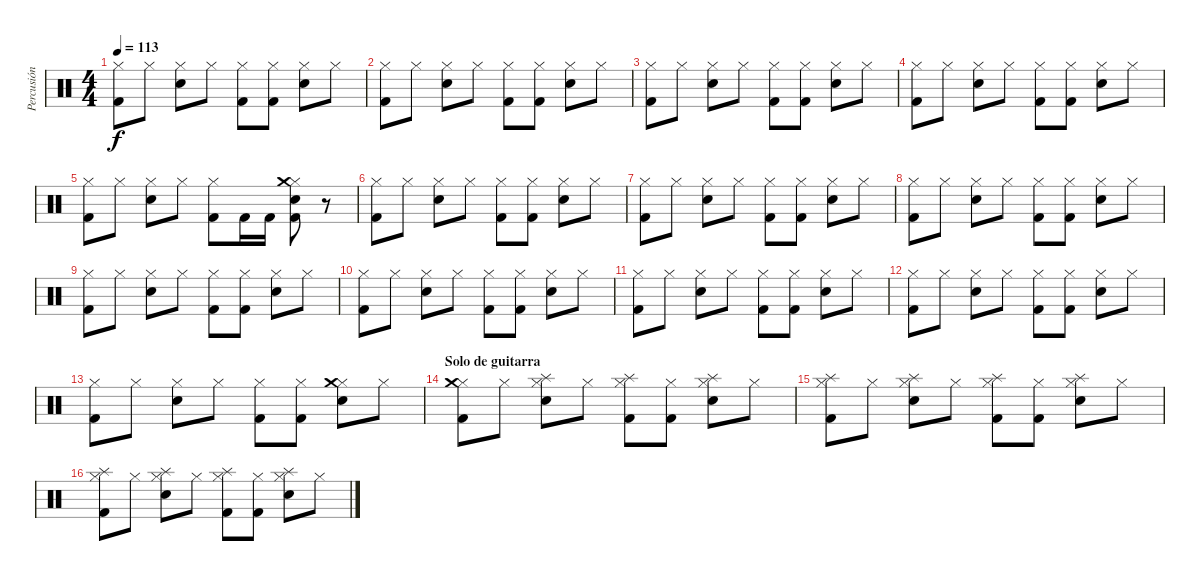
\track ("Percusión" "Percusión") {instrument percussion}
\staff {score}
\articulation defaults
\ts (4 4)
\tempo 113
\clef neutral
\ks c
("Kick (hit) 2" "Hi-Hat (closed)").8{dy f} "Hi-Hat (closed)".8 ("Electric Snare (hit)" "Hi-Hat (closed)").8 "Hi-Hat (closed)".8 ("Kick (hit) 2" "Hi-Hat (closed)").8 ("Kick (hit) 2" "Hi-Hat (closed)").8 ("Electric Snare (hit)" "Hi-Hat (closed)").8 "Hi-Hat (closed)".8 |
("Kick (hit) 2" "Hi-Hat (closed)").8 "Hi-Hat (closed)".8 ("Electric Snare (hit)" "Hi-Hat (closed)").8 "Hi-Hat (closed)".8 ("Kick (hit) 2" "Hi-Hat (closed)").8 ("Kick (hit) 2" "Hi-Hat (closed)").8 ("Electric Snare (hit)" "Hi-Hat (closed)").8 "Hi-Hat (closed)".8 |
("Kick (hit) 2" "Hi-Hat (closed)").8 "Hi-Hat (closed)".8 ("Electric Snare (hit)" "Hi-Hat (closed)").8 "Hi-Hat (closed)".8 ("Kick (hit) 2" "Hi-Hat (closed)").8 ("Kick (hit) 2" "Hi-Hat (closed)").8 ("Electric Snare (hit)" "Hi-Hat (closed)").8 "Hi-Hat (closed)".8 |
("Kick (hit) 2" "Hi-Hat (closed)").8 "Hi-Hat (closed)".8 ("Electric Snare (hit)" "Hi-Hat (closed)").8 "Hi-Hat (closed)".8 ("Kick (hit) 2" "Hi-Hat (closed)").8 ("Kick (hit) 2" "Hi-Hat (closed)").8 ("Electric Snare (hit)" "Hi-Hat (closed)").8 "Hi-Hat (closed)".8 |
("Kick (hit) 2" "Hi-Hat (closed)").8 "Hi-Hat (closed)".8 ("Electric Snare (hit)" "Hi-Hat (closed)").8 "Hi-Hat (closed)".8 ("Kick (hit) 2" "Hi-Hat (closed)").8 "Kick (hit) 2".16 "Kick (hit) 2".16 ("Kick (hit) 2" "Hi-Hat (closed)" "Crash medium (hit)" "Electric Snare (hit)").8 r.8 |
("Kick (hit) 2" "Hi-Hat (closed)").8 "Hi-Hat (closed)".8 ("Electric Snare (hit)" "Hi-Hat (closed)").8 "Hi-Hat (closed)".8 ("Kick (hit) 2" "Hi-Hat (closed)").8 ("Kick (hit) 2" "Hi-Hat (closed)").8 ("Electric Snare (hit)" "Hi-Hat (closed)").8 "Hi-Hat (closed)".8 |
("Kick (hit) 2" "Hi-Hat (closed)").8 "Hi-Hat (closed)".8 ("Electric Snare (hit)" "Hi-Hat (closed)").8 "Hi-Hat (closed)".8 ("Kick (hit) 2" "Hi-Hat (closed)").8 ("Kick (hit) 2" "Hi-Hat (closed)").8 ("Electric Snare (hit)" "Hi-Hat (closed)").8 "Hi-Hat (closed)".8 |
("Kick (hit) 2" "Hi-Hat (closed)").8 "Hi-Hat (closed)".8 ("Electric Snare (hit)" "Hi-Hat (closed)").8 "Hi-Hat (closed)".8 ("Kick (hit) 2" "Hi-Hat (closed)").8 ("Kick (hit) 2" "Hi-Hat (closed)").8 ("Electric Snare (hit)" "Hi-Hat (closed)").8 "Hi-Hat (closed)".8 |
("Kick (hit) 2" "Hi-Hat (closed)").8 "Hi-Hat (closed)".8 ("Electric Snare (hit)" "Hi-Hat (closed)").8 "Hi-Hat (closed)".8 ("Kick (hit) 2" "Hi-Hat (closed)").8 ("Kick (hit) 2" "Hi-Hat (closed)").8 ("Electric Snare (hit)" "Hi-Hat (closed)").8 "Hi-Hat (closed)".8 |
("Kick (hit) 2" "Hi-Hat (closed)").8 "Hi-Hat (closed)".8 ("Electric Snare (hit)" "Hi-Hat (closed)").8 "Hi-Hat (closed)".8 ("Kick (hit) 2" "Hi-Hat (closed)").8 ("Kick (hit) 2" "Hi-Hat (closed)").8 ("Electric Snare (hit)" "Hi-Hat (closed)").8 "Hi-Hat (closed)".8 |
("Kick (hit) 2" "Hi-Hat (closed)").8 "Hi-Hat (closed)".8 ("Electric Snare (hit)" "Hi-Hat (closed)").8 "Hi-Hat (closed)".8 ("Kick (hit) 2" "Hi-Hat (closed)").8 ("Kick (hit) 2" "Hi-Hat (closed)").8 ("Electric Snare (hit)" "Hi-Hat (closed)").8 "Hi-Hat (closed)".8 |
("Kick (hit) 2" "Hi-Hat (closed)").8 "Hi-Hat (closed)".8 ("Electric Snare (hit)" "Hi-Hat (closed)").8 "Hi-Hat (closed)".8 ("Kick (hit) 2" "Hi-Hat (closed)").8 ("Kick (hit) 2" "Hi-Hat (closed)").8 ("Electric Snare (hit)" "Hi-Hat (closed)").8 "Hi-Hat (closed)".8 |
("Kick (hit) 2" "Hi-Hat (closed)").8 "Hi-Hat (closed)".8 ("Electric Snare (hit)" "Hi-Hat (closed)").8 "Hi-Hat (closed)".8 ("Kick (hit) 2" "Hi-Hat (closed)").8 ("Kick (hit) 2" "Hi-Hat (closed)").8 ("Electric Snare (hit)" "Hi-Hat (closed)" "Crash medium (hit)").8 "Hi-Hat (closed)".8 |
\section ("" "Solo de guitarra")
("Kick (hit) 2" "Hi-Hat (closed)" "Crash medium (hit)").8 "Hi-Hat (closed)".8 ("Electric Snare (hit)" "Hi-Hat (closed)" "Splash (hit)").8 "Hi-Hat (closed)".8 ("Kick (hit) 2" "Hi-Hat (closed)" "Splash (hit)").8 ("Kick (hit) 2" "Hi-Hat (closed)").8 ("Electric Snare (hit)" "Hi-Hat (closed)" "Splash (hit)").8 "Hi-Hat (closed)".8 |
("Kick (hit) 2" "Hi-Hat (closed)" "Splash (hit)").8 "Hi-Hat (closed)".8 ("Electric Snare (hit)" "Hi-Hat (closed)" "Splash (hit)").8 "Hi-Hat (closed)".8 ("Kick (hit) 2" "Hi-Hat (closed)" "Splash (hit)").8 ("Kick (hit) 2" "Hi-Hat (closed)").8 ("Electric Snare (hit)" "Hi-Hat (closed)" "Splash (hit)").8 "Hi-Hat (closed)".8 |
("Kick (hit) 2" "Hi-Hat (closed)" "Splash (hit)").8 "Hi-Hat (closed)".8 ("Electric Snare (hit)" "Hi-Hat (closed)" "Splash (hit)").8 "Hi-Hat (closed)".8 ("Kick (hit) 2" "Hi-Hat (closed)" "Splash (hit)").8 ("Kick (hit) 2" "Hi-Hat (closed)").8 ("Electric Snare (hit)" "Hi-Hat (closed)" "Splash (hit)").8 "Hi-Hat (closed)".8
